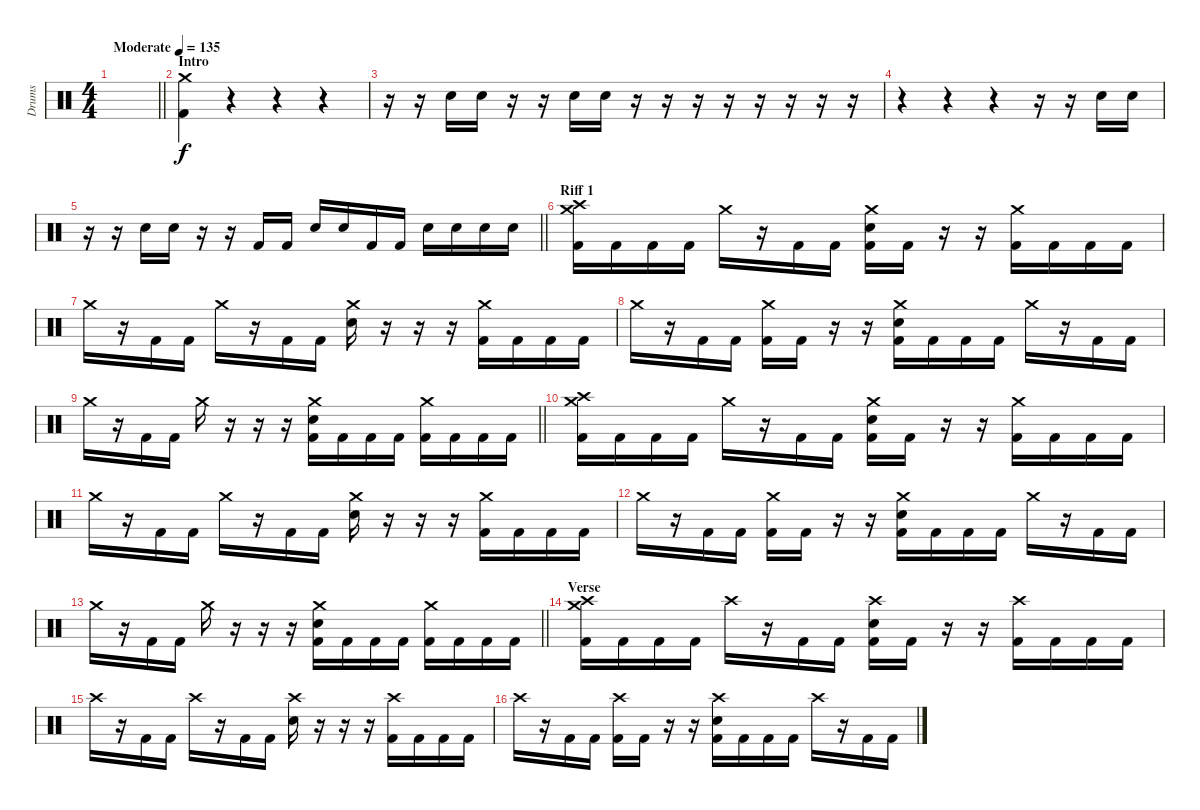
\track ("Drums" "Drums") {instrument percussion}
\staff {score}
\articulation defaults
\ts (4 4)
\tempo (135 "Moderate")
\clef neutral
\barLineRight lightlight
\ks c
|
\section ("" "Intro")
("Crash medium (hit)" "Kick (hit) 2").4 r.4 r.4 r.4 |
r.16 r.16 "Snare (hit) 2".16 "Snare (hit) 2".16 r.16 r.16 "Snare (hit) 2".16 "Snare (hit) 2".16 r.16 r.16 r.16 r.16 r.16 r.16 r.16 r.16 |
r.4 r.4 r.4 r.16 r.16 "Snare (hit) 2".16 "Snare (hit) 2".16 |
\barLineRight lightlight
r.16 r.16 "Snare (hit) 2".16 "Snare (hit) 2".16 r.16 r.16 "Kick (hit) 2".16 "Kick (hit) 2".16 "Snare (hit) 2".16 "Snare (hit) 2".16 "Kick (hit) 2".16 "Kick (hit) 2".16 "Snare (hit) 2".16 "Snare (hit) 2".16 "Snare (hit) 2".16 "Snare (hit) 2".16 |
\section ("" "Riff 1")
("Crash high (hit)" "Crash medium (hit)" "Kick (hit) 2").16 "Kick (hit) 2".16 "Kick (hit) 2".16 "Kick (hit) 2".16 "Crash medium (hit)".16 r.16 "Kick (hit) 2".16 "Kick (hit) 2".16 ("Crash medium (hit)" "Snare (hit) 2" "Kick (hit) 2").16 "Kick (hit) 2".16 r.16 r.16 ("Crash medium (hit)" "Kick (hit) 2").16 "Kick (hit) 2".16 "Kick (hit) 2".16 "Kick (hit) 2".16 |
"Crash medium (hit)".16 r.16 "Kick (hit) 2".16 "Kick (hit) 2".16 "Crash medium (hit)".16 r.16 "Kick (hit) 2".16 "Kick (hit) 2".16 ("Crash medium (hit)" "Snare (hit) 2").16 r.16 r.16 r.16 ("Crash medium (hit)" "Kick (hit) 2").16 "Kick (hit) 2".16 "Kick (hit) 2".16 "Kick (hit) 2".16 |
"Crash medium (hit)".16 r.16 "Kick (hit) 2".16 "Kick (hit) 2".16 ("Crash medium (hit)" "Kick (hit) 2").16 "Kick (hit) 2".16 r.16 r.16 ("Crash medium (hit)" "Snare (hit) 2" "Kick (hit) 2").16 "Kick (hit) 2".16 "Kick (hit) 2".16 "Kick (hit) 2".16 "Crash medium (hit)".16 r.16 "Kick (hit) 2".16 "Kick (hit) 2".16 |
\barLineRight lightlight "Crash medium (hit)".16
r.16 "Kick (hit) 2".16 "Kick (hit) 2".16 "Crash medium (hit)".16 r.16 r.16 r.16 ("Crash medium (hit)" "Snare (hit) 2" "Kick (hit) 2").16 "Kick (hit) 2".16 "Kick (hit) 2".16 "Kick (hit) 2".16 ("Crash medium (hit)" "Kick (hit) 2").16 "Kick (hit) 2".16 "Kick (hit) 2".16 "Kick (hit) 2".16 |
("Crash high (hit)" "Crash medium (hit)" "Kick (hit) 2").16 "Kick (hit) 2".16 "Kick (hit) 2".16 "Kick (hit) 2".16 "Crash medium (hit)".16 r.16 "Kick (hit) 2".16 "Kick (hit) 2".16 ("Crash medium (hit)" "Snare (hit) 2" "Kick (hit) 2").16 "Kick (hit) 2".16 r.16 r.16 ("Crash medium (hit)" "Kick (hit) 2").16 "Kick (hit) 2".16 "Kick (hit) 2".16 "Kick (hit) 2".16 |
"Crash medium (hit)".16 r.16 "Kick (hit) 2".16 "Kick (hit) 2".16 "Crash medium (hit)".16 r.16 "Kick (hit) 2".16 "Kick (hit) 2".16 ("Crash medium (hit)" "Snare (hit) 2").16 r.16 r.16 r.16 ("Crash medium (hit)" "Kick (hit) 2").16 "Kick (hit) 2".16 "Kick (hit) 2".16 "Kick (hit) 2".16 |
"Crash medium (hit)".16 r.16 "Kick (hit) 2".16 "Kick (hit) 2".16 ("Crash medium (hit)" "Kick (hit) 2").16 "Kick (hit) 2".16 r.16 r.16 ("Crash medium (hit)" "Snare (hit) 2" "Kick (hit) 2").16 "Kick (hit) 2".16 "Kick (hit) 2".16 "Kick (hit) 2".16 "Crash medium (hit)".16 r.16 "Kick (hit) 2".16 "Kick (hit) 2".16 |
\barLineRight lightlight "Crash medium (hit)".16
r.16 "Kick (hit) 2".16 "Kick (hit) 2".16 "Crash medium (hit)".16 r.16 r.16 r.16 ("Crash medium (hit)" "Snare (hit) 2" "Kick (hit) 2").16 "Kick (hit) 2".16 "Kick (hit) 2".16 "Kick (hit) 2".16 ("Crash medium (hit)" "Kick (hit) 2").16 "Kick (hit) 2".16 "Kick (hit) 2".16 "Kick (hit) 2".16 |
\section ("" "Verse")
("Crash medium (hit)" "Crash high (hit)" "Kick (hit) 2").16 "Kick (hit) 2".16 "Kick (hit) 2".16 "Kick (hit) 2".16 "Crash high (hit)".16 r.16 "Kick (hit) 2".16 "Kick (hit) 2".16 ("Crash high (hit)" "Snare (hit) 2" "Kick (hit) 2").16 "Kick (hit) 2".16 r.16 r.16 ("Crash high (hit)" "Kick (hit) 2").16 "Kick (hit) 2".16 "Kick (hit) 2".16 "Kick (hit) 2".16 |
"Crash high (hit)".16 r.16 "Kick (hit) 2".16 "Kick (hit) 2".16 "Crash high (hit)".16 r.16 "Kick (hit) 2".16 "Kick (hit) 2".16 ("Crash high (hit)" "Snare (hit) 2").16 r.16 r.16 r.16 ("Crash high (hit)" "Kick (hit) 2").16 "Kick (hit) 2".16 "Kick (hit) 2".16 "Kick (hit) 2".16 |
"Crash high (hit)".16 r.16 "Kick (hit) 2".16 "Kick (hit) 2".16 ("Crash high (hit)" "Kick (hit) 2").16 "Kick (hit) 2".16 r.16 r.16 ("Crash high (hit)" "Snare (hit) 2" "Kick (hit) 2").16 "Kick (hit) 2".16 "Kick (hit) 2".16 "Kick (hit) 2".16 "Crash high (hit)".16 r.16 "Kick (hit) 2".16 "Kick (hit) 2".16
